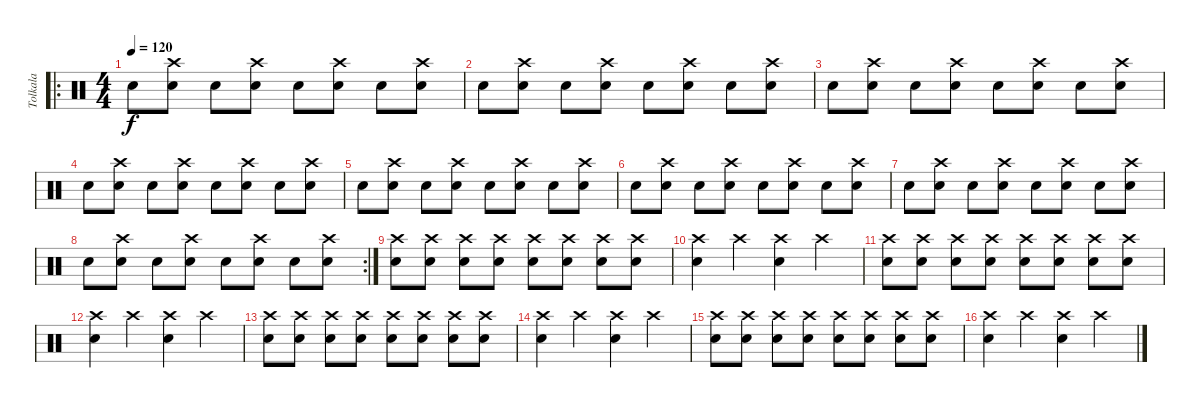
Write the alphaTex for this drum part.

\track ("Tolkala" "Tolkala") {instrument percussion}
\staff {score}
\articulation defaults
\ro
\ts (4 4)
\tempo 120
\clef neutral
\ks c "Snare (hit) 2".8{dy f}
("Crash high (hit)" "Snare (hit) 2").8 "Snare (hit) 2".8 ("Crash high (hit)" "Snare (hit) 2").8 "Snare (hit) 2".8 ("Crash high (hit)" "Snare (hit) 2").8 "Snare (hit) 2".8 ("Crash high (hit)" "Snare (hit) 2").8 |
"Snare (hit) 2".8 ("Crash high (hit)" "Snare (hit) 2").8 "Snare (hit) 2".8 ("Crash high (hit)" "Snare (hit) 2").8 "Snare (hit) 2".8 ("Crash high (hit)" "Snare (hit) 2").8 "Snare (hit) 2".8 ("Crash high (hit)" "Snare (hit) 2").8 |
"Snare (hit) 2".8 ("Crash high (hit)" "Snare (hit) 2").8 "Snare (hit) 2".8 ("Crash high (hit)" "Snare (hit) 2").8 "Snare (hit) 2".8 ("Crash high (hit)" "Snare (hit) 2").8 "Snare (hit) 2".8 ("Crash high (hit)" "Snare (hit) 2").8 |
"Snare (hit) 2".8 ("Crash high (hit)" "Snare (hit) 2").8 "Snare (hit) 2".8 ("Crash high (hit)" "Snare (hit) 2").8 "Snare (hit) 2".8 ("Crash high (hit)" "Snare (hit) 2").8 "Snare (hit) 2".8 ("Crash high (hit)" "Snare (hit) 2").8 |
"Snare (hit) 2".8 ("Crash high (hit)" "Snare (hit) 2").8 "Snare (hit) 2".8 ("Crash high (hit)" "Snare (hit) 2").8 "Snare (hit) 2".8 ("Crash high (hit)" "Snare (hit) 2").8 "Snare (hit) 2".8 ("Crash high (hit)" "Snare (hit) 2").8 |
"Snare (hit) 2".8 ("Crash high (hit)" "Snare (hit) 2").8 "Snare (hit) 2".8 ("Crash high (hit)" "Snare (hit) 2").8 "Snare (hit) 2".8 ("Crash high (hit)" "Snare (hit) 2").8 "Snare (hit) 2".8 ("Crash high (hit)" "Snare (hit) 2").8 |
"Snare (hit) 2".8 ("Crash high (hit)" "Snare (hit) 2").8 "Snare (hit) 2".8 ("Crash high (hit)" "Snare (hit) 2").8 "Snare (hit) 2".8 ("Crash high (hit)" "Snare (hit) 2").8 "Snare (hit) 2".8 ("Crash high (hit)" "Snare (hit) 2").8 |
\rc 2 "Snare (hit) 2".8
("Crash high (hit)" "Snare (hit) 2").8 "Snare (hit) 2".8 ("Crash high (hit)" "Snare (hit) 2").8 "Snare (hit) 2".8 ("Crash high (hit)" "Snare (hit) 2").8 "Snare (hit) 2".8 ("Crash high (hit)" "Snare (hit) 2").8 |
("Crash high (hit)" "Snare (hit) 2").8 ("Crash high (hit)" "Snare (hit) 2").8 ("Crash high (hit)" "Snare (hit) 2").8 ("Crash high (hit)" "Snare (hit) 2").8 ("Crash high (hit)" "Snare (hit) 2").8 ("Crash high (hit)" "Snare (hit) 2").8 ("Crash high (hit)" "Snare (hit) 2").8 ("Crash high (hit)" "Snare (hit) 2").8 |
("Crash high (hit)" "Snare (hit) 2").4 "Crash high (hit)".4 ("Crash high (hit)" "Snare (hit) 2").4 "Crash high (hit)".4 |
("Crash high (hit)" "Snare (hit) 2").8 ("Crash high (hit)" "Snare (hit) 2").8 ("Crash high (hit)" "Snare (hit) 2").8 ("Crash high (hit)" "Snare (hit) 2").8 ("Crash high (hit)" "Snare (hit) 2").8 ("Crash high (hit)" "Snare (hit) 2").8 ("Crash high (hit)" "Snare (hit) 2").8 ("Crash high (hit)" "Snare (hit) 2").8 |
("Crash high (hit)" "Snare (hit) 2").4 "Crash high (hit)".4 ("Crash high (hit)" "Snare (hit) 2").4 "Crash high (hit)".4 |
("Crash high (hit)" "Snare (hit) 2").8 ("Crash high (hit)" "Snare (hit) 2").8 ("Crash high (hit)" "Snare (hit) 2").8 ("Crash high (hit)" "Snare (hit) 2").8 ("Crash high (hit)" "Snare (hit) 2").8 ("Crash high (hit)" "Snare (hit) 2").8 ("Crash high (hit)" "Snare (hit) 2").8 ("Crash high (hit)" "Snare (hit) 2").8 |
("Crash high (hit)" "Snare (hit) 2").4 "Crash high (hit)".4 ("Crash high (hit)" "Snare (hit) 2").4 "Crash high (hit)".4 |
("Crash high (hit)" "Snare (hit) 2").8 ("Crash high (hit)" "Snare (hit) 2").8 ("Crash high (hit)" "Snare (hit) 2").8 ("Crash high (hit)" "Snare (hit) 2").8 ("Crash high (hit)" "Snare (hit) 2").8 ("Crash high (hit)" "Snare (hit) 2").8 ("Crash high (hit)" "Snare (hit) 2").8 ("Crash high (hit)" "Snare (hit) 2").8 |
("Crash high (hit)" "Snare (hit) 2").4 "Crash high (hit)".4 ("Crash high (hit)" "Snare (hit) 2").4 "Crash high (hit)".4
